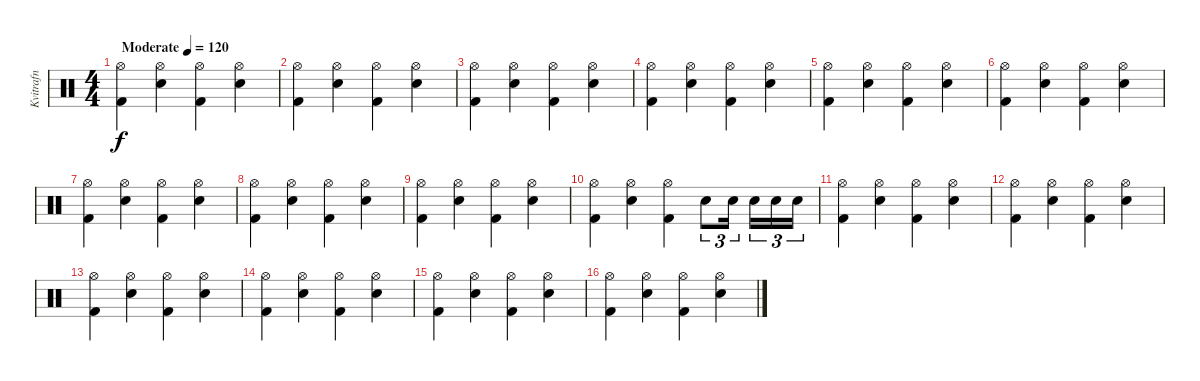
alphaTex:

\track ("Kvitrafn" "Kvitrafn") {instrument percussion}
\staff {score}
\articulation defaults
\ts (4 4)
\tempo (120 "Moderate")
\clef neutral
\ks c
("Hi-Hat (open)" "Kick (hit) 2").4{dy f} ("Hi-Hat (open)" "Electric Snare (hit)").4 ("Hi-Hat (open)" "Kick (hit) 2").4 ("Hi-Hat (open)" "Electric Snare (hit)").4 |
("Hi-Hat (open)" "Kick (hit) 2").4 ("Hi-Hat (open)" "Electric Snare (hit)").4 ("Hi-Hat (open)" "Kick (hit) 2").4 ("Hi-Hat (open)" "Electric Snare (hit)").4 |
("Hi-Hat (open)" "Kick (hit) 2").4 ("Hi-Hat (open)" "Electric Snare (hit)").4 ("Hi-Hat (open)" "Kick (hit) 2").4 ("Hi-Hat (open)" "Electric Snare (hit)").4 |
("Hi-Hat (open)" "Kick (hit) 2").4 ("Hi-Hat (open)" "Electric Snare (hit)").4 ("Hi-Hat (open)" "Kick (hit) 2").4 ("Hi-Hat (open)" "Electric Snare (hit)").4 |
("Hi-Hat (open)" "Kick (hit) 2").4 ("Hi-Hat (open)" "Electric Snare (hit)").4 ("Hi-Hat (open)" "Kick (hit) 2").4 ("Hi-Hat (open)" "Electric Snare (hit)").4 |
("Hi-Hat (open)" "Kick (hit) 2").4 ("Hi-Hat (open)" "Electric Snare (hit)").4 ("Hi-Hat (open)" "Kick (hit) 2").4 ("Hi-Hat (open)" "Electric Snare (hit)").4 |
("Hi-Hat (open)" "Kick (hit) 2").4 ("Hi-Hat (open)" "Electric Snare (hit)").4 ("Hi-Hat (open)" "Kick (hit) 2").4 ("Hi-Hat (open)" "Electric Snare (hit)").4 |
("Hi-Hat (open)" "Kick (hit) 2").4 ("Hi-Hat (open)" "Electric Snare (hit)").4 ("Hi-Hat (open)" "Kick (hit) 2").4 ("Hi-Hat (open)" "Electric Snare (hit)").4 |
("Hi-Hat (open)" "Kick (hit) 2").4 ("Hi-Hat (open)" "Electric Snare (hit)").4 ("Hi-Hat (open)" "Kick (hit) 2").4 ("Hi-Hat (open)" "Electric Snare (hit)").4 |
("Hi-Hat (open)" "Kick (hit) 2").4 ("Hi-Hat (open)" "Electric Snare (hit)").4 ("Hi-Hat (open)" "Kick (hit) 2").4 "Electric Snare (hit)".8{tu (3 2)} "Electric Snare (hit)".16{tu (3 2) beam splitsecondary} "Electric Snare (hit)".16{tu (3 2)} "Electric Snare (hit)".16{tu (3 2)} "Electric Snare (hit)".16{tu (3 2)} |
("Hi-Hat (open)" "Kick (hit) 2").4 ("Hi-Hat (open)" "Electric Snare (hit)").4 ("Hi-Hat (open)" "Kick (hit) 2").4 ("Hi-Hat (open)" "Electric Snare (hit)").4 |
("Hi-Hat (open)" "Kick (hit) 2").4 ("Hi-Hat (open)" "Electric Snare (hit)").4 ("Hi-Hat (open)" "Kick (hit) 2").4 ("Hi-Hat (open)" "Electric Snare (hit)").4 |
("Hi-Hat (open)" "Kick (hit) 2").4 ("Hi-Hat (open)" "Electric Snare (hit)").4 ("Hi-Hat (open)" "Kick (hit) 2").4 ("Hi-Hat (open)" "Electric Snare (hit)").4 |
("Hi-Hat (open)" "Kick (hit) 2").4 ("Hi-Hat (open)" "Electric Snare (hit)").4 ("Hi-Hat (open)" "Kick (hit) 2").4 ("Hi-Hat (open)" "Electric Snare (hit)").4 |
("Hi-Hat (open)" "Kick (hit) 2").4 ("Hi-Hat (open)" "Electric Snare (hit)").4 ("Hi-Hat (open)" "Kick (hit) 2").4 ("Hi-Hat (open)" "Electric Snare (hit)").4 |
("Hi-Hat (open)" "Kick (hit) 2").4 ("Hi-Hat (open)" "Electric Snare (hit)").4 ("Hi-Hat (open)" "Kick (hit) 2").4 ("Hi-Hat (open)" "Electric Snare (hit)").4
